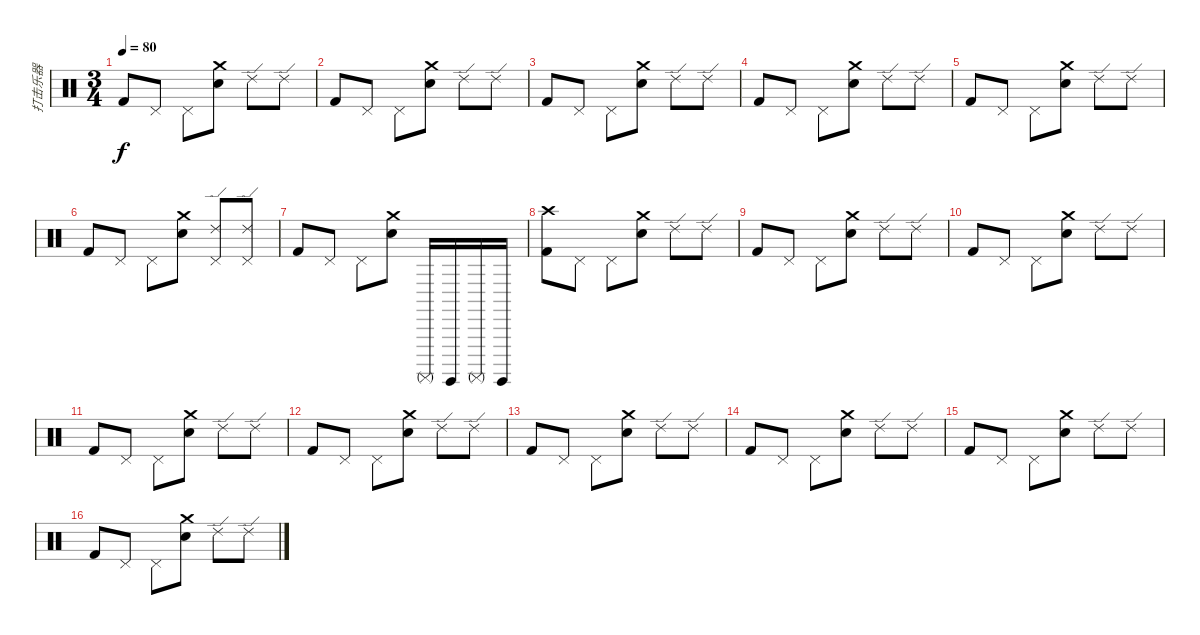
\track ("打击乐器" "打击乐器") {instrument percussion}
\staff {score}
\articulation defaults
\ts (3 4)
\tempo 80
\clef neutral
\ks c "Kick (hit) 2".8{dy f} "Pedal Hi-Hat (hit)".8 "Pedal Hi-Hat (hit)".8
("Crash medium (hit)" "Snare (hit) 2").8 "Ride (edge) 2".8 "Ride (edge) 2".8 |
"Kick (hit) 2".8 "Pedal Hi-Hat (hit)".8 "Pedal Hi-Hat (hit)".8 ("Crash medium (hit)" "Snare (hit) 2").8 "Ride (edge) 2".8 "Ride (edge) 2".8 |
"Kick (hit) 2".8 "Pedal Hi-Hat (hit)".8 "Pedal Hi-Hat (hit)".8 ("Crash medium (hit)" "Snare (hit) 2").8 "Ride (edge) 2".8 "Ride (edge) 2".8 |
"Kick (hit) 2".8 "Pedal Hi-Hat (hit)".8 "Pedal Hi-Hat (hit)".8 ("Crash medium (hit)" "Snare (hit) 2").8 "Ride (edge) 2".8 "Ride (edge) 2".8 |
"Kick (hit) 2".8 "Pedal Hi-Hat (hit)".8 "Pedal Hi-Hat (hit)".8 ("Crash medium (hit)" "Snare (hit) 2").8 "Ride (edge) 2".8 "Ride (edge) 2".8 |
"Kick (hit) 2".8 "Pedal Hi-Hat (hit)".8 "Pedal Hi-Hat (hit)".8 ("Crash medium (hit)" "Snare (hit) 2").8 ("Pedal Hi-Hat (hit)" "Ride (edge) 2").8 ("Pedal Hi-Hat (hit)" "Ride (edge) 2").8 |
"Kick (hit) 2".8 "Pedal Hi-Hat (hit)".8 "Pedal Hi-Hat (hit)".8 ("Crash medium (hit)" "Snare (hit) 2").8 "Surdo (mute)".16 "Surdo (hit)".16 "Surdo (mute)".16 "Surdo (hit)".16 |
("Crash high (hit)" "Kick (hit) 2").8 "Pedal Hi-Hat (hit)".8 "Pedal Hi-Hat (hit)".8 ("Crash medium (hit)" "Snare (hit) 2").8 "Ride (edge) 2".8 "Ride (edge) 2".8 |
"Kick (hit) 2".8 "Pedal Hi-Hat (hit)".8 "Pedal Hi-Hat (hit)".8 ("Crash medium (hit)" "Snare (hit) 2").8 "Ride (edge) 2".8 "Ride (edge) 2".8 |
"Kick (hit) 2".8 "Pedal Hi-Hat (hit)".8 "Pedal Hi-Hat (hit)".8 ("Crash medium (hit)" "Snare (hit) 2").8 "Ride (edge) 2".8 "Ride (edge) 2".8 |
"Kick (hit) 2".8 "Pedal Hi-Hat (hit)".8 "Pedal Hi-Hat (hit)".8 ("Crash medium (hit)" "Snare (hit) 2").8 "Ride (edge) 2".8 "Ride (edge) 2".8 |
"Kick (hit) 2".8 "Pedal Hi-Hat (hit)".8 "Pedal Hi-Hat (hit)".8 ("Crash medium (hit)" "Snare (hit) 2").8 "Ride (edge) 2".8 "Ride (edge) 2".8 |
"Kick (hit) 2".8 "Pedal Hi-Hat (hit)".8 "Pedal Hi-Hat (hit)".8 ("Crash medium (hit)" "Snare (hit) 2").8 "Ride (edge) 2".8 "Ride (edge) 2".8 |
"Kick (hit) 2".8 "Pedal Hi-Hat (hit)".8 "Pedal Hi-Hat (hit)".8 ("Crash medium (hit)" "Snare (hit) 2").8 "Ride (edge) 2".8 "Ride (edge) 2".8 |
"Kick (hit) 2".8 "Pedal Hi-Hat (hit)".8 "Pedal Hi-Hat (hit)".8 ("Crash medium (hit)" "Snare (hit) 2").8 "Ride (edge) 2".8 "Ride (edge) 2".8 |
"Kick (hit) 2".8 "Pedal Hi-Hat (hit)".8 "Pedal Hi-Hat (hit)".8 ("Crash medium (hit)" "Snare (hit) 2").8 "Ride (edge) 2".8 "Ride (edge) 2".8
